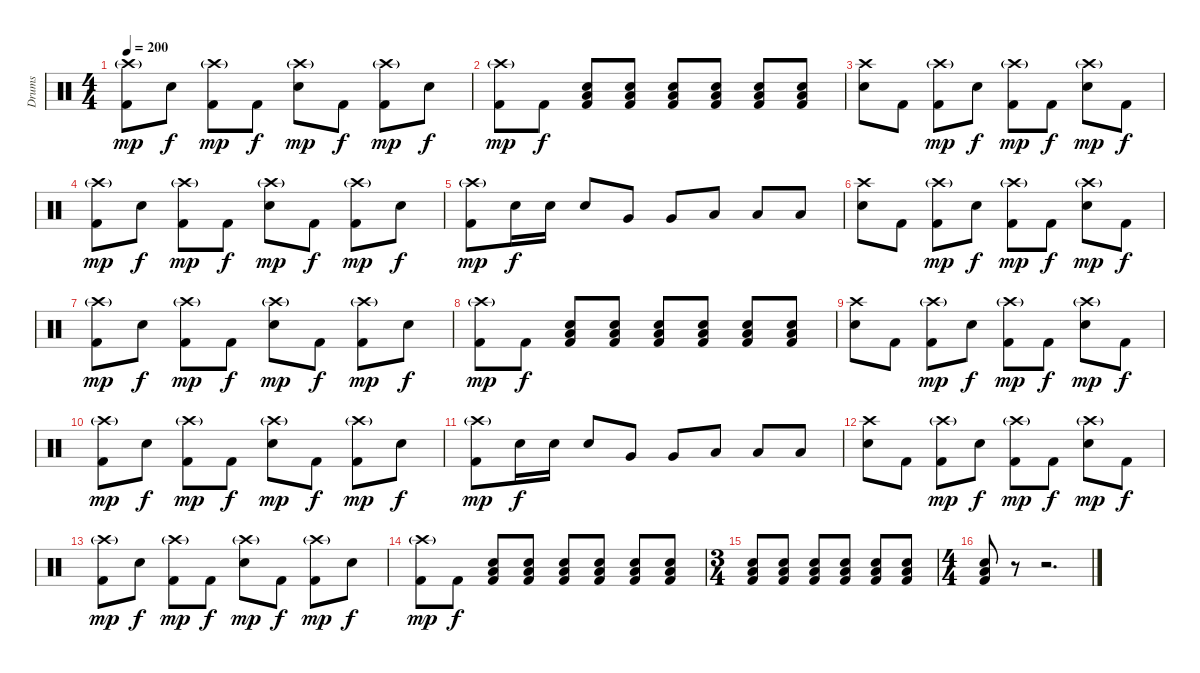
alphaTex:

\track ("Drums" "Drums") {instrument percussion}
\staff {score}
\articulation defaults
\ts (4 4)
\tempo 200
\clef neutral
\ks c
("Crash high (hit)"{g} "Kick (hit) 2").8{dy mp} "Snare (hit) 2".8{dy f} ("Crash high (hit)"{g} "Kick (hit) 2").8{dy mp} "Kick (hit) 2".8{dy f} ("Crash high (hit)"{g} "Snare (hit) 2").8{dy mp} "Kick (hit) 2".8{dy f} ("Crash high (hit)"{g} "Kick (hit) 2").8{dy mp} "Snare (hit) 2".8{dy f} |
("Crash high (hit)"{g} "Kick (hit) 2").8{dy mp} "Kick (hit) 2".8{dy f} ("Snare (hit) 2" "Low Floor Tom (hit)" "Kick (hit) 2").8 ("Snare (hit) 2" "Low Floor Tom (hit)" "Kick (hit) 2").8 ("Snare (hit) 2" "Low Floor Tom (hit)" "Kick (hit) 2").8 ("Snare (hit) 2" "Low Floor Tom (hit)" "Kick (hit) 2").8 ("Snare (hit) 2" "Low Floor Tom (hit)" "Kick (hit) 2").8 ("Snare (hit) 2" "Low Floor Tom (hit)" "Kick (hit) 2").8 |
("Crash high (hit)" "Snare (hit) 2").8 "Kick (hit) 2".8 ("Crash high (hit)"{g} "Kick (hit) 2").8{dy mp} "Snare (hit) 2".8{dy f} ("Crash high (hit)"{g} "Kick (hit) 2").8{dy mp} "Kick (hit) 2".8{dy f} ("Crash high (hit)"{g} "Snare (hit) 2").8{dy mp} "Kick (hit) 2".8{dy f} |
("Crash high (hit)"{g} "Kick (hit) 2").8{dy mp} "Snare (hit) 2".8{dy f} ("Crash high (hit)"{g} "Kick (hit) 2").8{dy mp} "Kick (hit) 2".8{dy f} ("Crash high (hit)"{g} "Snare (hit) 2").8{dy mp} "Kick (hit) 2".8{dy f} ("Crash high (hit)"{g} "Kick (hit) 2").8{dy mp} "Snare (hit) 2".8{dy f} |
("Crash high (hit)"{g} "Kick (hit) 2").8{dy mp} "Snare (hit) 2".16{dy f} "Snare (hit) 2".16 "Snare (hit) 2".8 "Very Low Tom (hit)".8 "Very Low Tom (hit)".8 "Low Floor Tom (hit)".8 "Low Floor Tom (hit)".8 "Low Floor Tom (hit)".8 |
("Crash high (hit)" "Snare (hit) 2").8 "Kick (hit) 2".8 ("Crash high (hit)"{g} "Kick (hit) 2").8{dy mp} "Snare (hit) 2".8{dy f} ("Crash high (hit)"{g} "Kick (hit) 2").8{dy mp} "Kick (hit) 2".8{dy f} ("Crash high (hit)"{g} "Snare (hit) 2").8{dy mp} "Kick (hit) 2".8{dy f} |
("Crash high (hit)"{g} "Kick (hit) 2").8{dy mp} "Snare (hit) 2".8{dy f} ("Crash high (hit)"{g} "Kick (hit) 2").8{dy mp} "Kick (hit) 2".8{dy f} ("Crash high (hit)"{g} "Snare (hit) 2").8{dy mp} "Kick (hit) 2".8{dy f} ("Crash high (hit)"{g} "Kick (hit) 2").8{dy mp} "Snare (hit) 2".8{dy f} |
("Crash high (hit)"{g} "Kick (hit) 2").8{dy mp} "Kick (hit) 2".8{dy f} ("Snare (hit) 2" "Low Floor Tom (hit)" "Kick (hit) 2").8 ("Snare (hit) 2" "Low Floor Tom (hit)" "Kick (hit) 2").8 ("Snare (hit) 2" "Low Floor Tom (hit)" "Kick (hit) 2").8 ("Snare (hit) 2" "Low Floor Tom (hit)" "Kick (hit) 2").8 ("Snare (hit) 2" "Low Floor Tom (hit)" "Kick (hit) 2").8 ("Snare (hit) 2" "Low Floor Tom (hit)" "Kick (hit) 2").8 |
("Crash high (hit)" "Snare (hit) 2").8 "Kick (hit) 2".8 ("Crash high (hit)"{g} "Kick (hit) 2").8{dy mp} "Snare (hit) 2".8{dy f} ("Crash high (hit)"{g} "Kick (hit) 2").8{dy mp} "Kick (hit) 2".8{dy f} ("Crash high (hit)"{g} "Snare (hit) 2").8{dy mp} "Kick (hit) 2".8{dy f} |
("Crash high (hit)"{g} "Kick (hit) 2").8{dy mp} "Snare (hit) 2".8{dy f} ("Crash high (hit)"{g} "Kick (hit) 2").8{dy mp} "Kick (hit) 2".8{dy f} ("Crash high (hit)"{g} "Snare (hit) 2").8{dy mp} "Kick (hit) 2".8{dy f} ("Crash high (hit)"{g} "Kick (hit) 2").8{dy mp} "Snare (hit) 2".8{dy f} |
("Crash high (hit)"{g} "Kick (hit) 2").8{dy mp} "Snare (hit) 2".16{dy f} "Snare (hit) 2".16 "Snare (hit) 2".8 "Very Low Tom (hit)".8 "Very Low Tom (hit)".8 "Low Floor Tom (hit)".8 "Low Floor Tom (hit)".8 "Low Floor Tom (hit)".8 |
("Crash high (hit)" "Snare (hit) 2").8 "Kick (hit) 2".8 ("Crash high (hit)"{g} "Kick (hit) 2").8{dy mp} "Snare (hit) 2".8{dy f} ("Crash high (hit)"{g} "Kick (hit) 2").8{dy mp} "Kick (hit) 2".8{dy f} ("Crash high (hit)"{g} "Snare (hit) 2").8{dy mp} "Kick (hit) 2".8{dy f} |
("Crash high (hit)"{g} "Kick (hit) 2").8{dy mp} "Snare (hit) 2".8{dy f} ("Crash high (hit)"{g} "Kick (hit) 2").8{dy mp} "Kick (hit) 2".8{dy f} ("Crash high (hit)"{g} "Snare (hit) 2").8{dy mp} "Kick (hit) 2".8{dy f} ("Crash high (hit)"{g} "Kick (hit) 2").8{dy mp} "Snare (hit) 2".8{dy f} |
("Crash high (hit)"{g} "Kick (hit) 2").8{dy mp} "Kick (hit) 2".8{dy f} ("Snare (hit) 2" "Low Floor Tom (hit)" "Kick (hit) 2").8 ("Snare (hit) 2" "Low Floor Tom (hit)" "Kick (hit) 2").8 ("Snare (hit) 2" "Low Floor Tom (hit)" "Kick (hit) 2").8 ("Snare (hit) 2" "Low Floor Tom (hit)" "Kick (hit) 2").8 ("Snare (hit) 2" "Low Floor Tom (hit)" "Kick (hit) 2").8 ("Snare (hit) 2" "Low Floor Tom (hit)" "Kick (hit) 2").8 |
\ts (3 4)
("Snare (hit) 2" "Low Floor Tom (hit)" "Kick (hit) 2").8 ("Snare (hit) 2" "Low Floor Tom (hit)" "Kick (hit) 2").8 ("Snare (hit) 2" "Low Floor Tom (hit)" "Kick (hit) 2").8 ("Snare (hit) 2" "Low Floor Tom (hit)" "Kick (hit) 2").8 ("Snare (hit) 2" "Low Floor Tom (hit)" "Kick (hit) 2").8 ("Snare (hit) 2" "Low Floor Tom (hit)" "Kick (hit) 2").8 |
\ts (4 4)
("Snare (hit) 2" "Low Floor Tom (hit)" "Kick (hit) 2").8 r.8 r.2{d}
